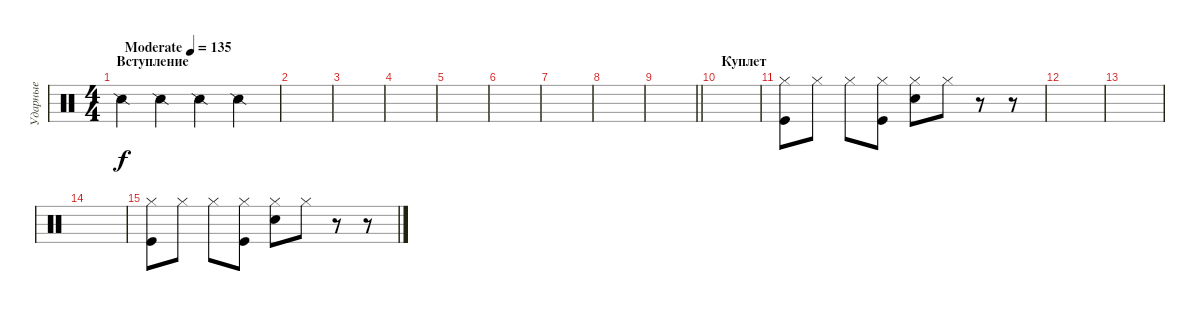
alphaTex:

\track ("Ударные" "Ударные") {instrument percussion}
\staff {score}
\articulation defaults
\ts (4 4)
\section ("" "Вступление")
\tempo (135 "Moderate")
\clef neutral
\ks c "Snare (side stick) 2".4{dy f} "Snare (side stick) 2".4 "Snare (side stick) 2".4 "Snare (side stick) 2".4
|
|
|
|
|
|
|
|
\barLineRight lightlight
|
\section ("" "Куплет")
|
("Hi-Hat (closed)" "Kick (hit)").8 "Hi-Hat (closed)".8 "Hi-Hat (closed)".8 ("Hi-Hat (closed)" "Kick (hit)").8 ("Hi-Hat (closed)" "Electric Snare (hit)").8 "Hi-Hat (closed)".8 r.8 r.8 |
|
|
|
("Hi-Hat (closed)" "Kick (hit)").8 "Hi-Hat (closed)".8 "Hi-Hat (closed)".8 ("Hi-Hat (closed)" "Kick (hit)").8 ("Hi-Hat (closed)" "Electric Snare (hit)").8 "Hi-Hat (closed)".8 r.8 r.8
